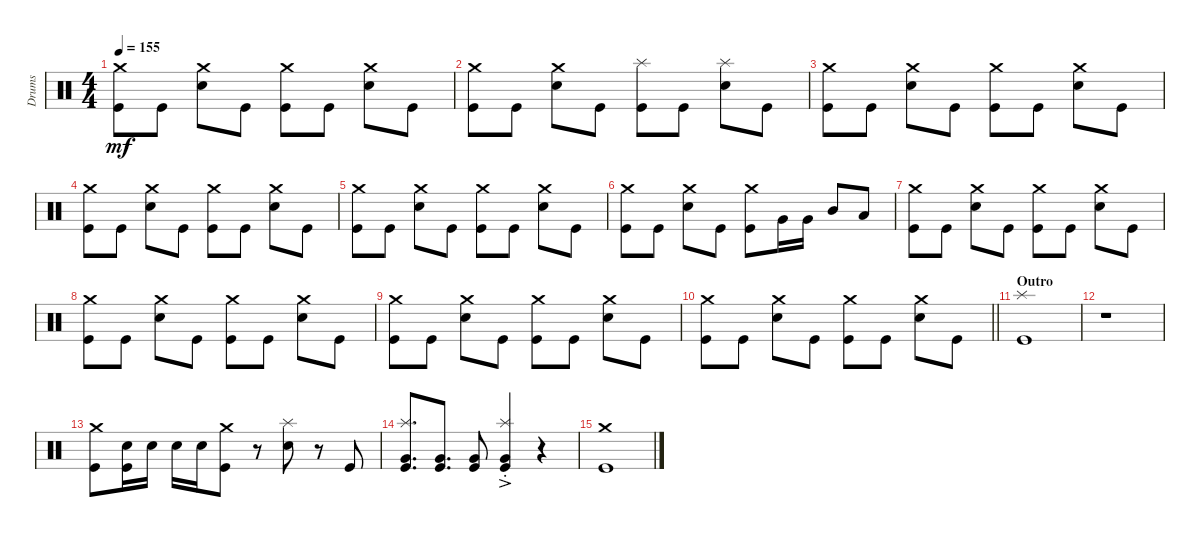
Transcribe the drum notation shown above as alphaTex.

\track ("Drums" "Drums") {instrument percussion}
\staff {score}
\articulation defaults
\ts (4 4)
\tempo 155
\clef neutral
\ks c
("Kick (hit)" "Crash medium (hit)").8{dy mf} "Kick (hit)".8 ("Snare (hit) 2" "Crash medium (hit)").8 "Kick (hit)".8 ("Kick (hit)" "Crash medium (hit)").8 "Kick (hit)".8 ("Snare (hit) 2" "Crash medium (hit)").8 "Kick (hit)".8 |
("Kick (hit)" "Crash medium (hit)").8 "Kick (hit)".8 ("Snare (hit) 2" "Crash medium (hit)").8 "Kick (hit)".8 ("Kick (hit)" "Splash (hit)").8 "Kick (hit)".8 ("Snare (hit) 2" "Splash (hit)").8 "Kick (hit)".8 |
("Kick (hit)" "Crash medium (hit)").8 "Kick (hit)".8 ("Snare (hit) 2" "Crash medium (hit)").8 "Kick (hit)".8 ("Kick (hit)" "Crash medium (hit)").8 "Kick (hit)".8 ("Snare (hit) 2" "Crash medium (hit)").8 "Kick (hit)".8 |
("Kick (hit)" "Crash medium (hit)").8 "Kick (hit)".8 ("Snare (hit) 2" "Crash medium (hit)").8 "Kick (hit)".8 ("Kick (hit)" "Crash medium (hit)").8 "Kick (hit)".8 ("Snare (hit) 2" "Crash medium (hit)").8 "Kick (hit)".8 |
("Kick (hit)" "Crash medium (hit)").8 "Kick (hit)".8 ("Snare (hit) 2" "Crash medium (hit)").8 "Kick (hit)".8 ("Kick (hit)" "Crash medium (hit)").8 "Kick (hit)".8 ("Snare (hit) 2" "Crash medium (hit)").8 "Kick (hit)".8 |
("Kick (hit)" "Crash medium (hit)").8 "Kick (hit)".8 ("Snare (hit) 2" "Crash medium (hit)").8 "Kick (hit)".8 ("Kick (hit)" "Crash medium (hit)").8 "Very Low Tom (hit)".16 "Very Low Tom (hit)".16 "Mid Tom (hit)".8 "Low Tom (hit)".8 |
("Kick (hit)" "Crash medium (hit)").8 "Kick (hit)".8 ("Snare (hit) 2" "Crash medium (hit)").8 "Kick (hit)".8 ("Kick (hit)" "Crash medium (hit)").8 "Kick (hit)".8 ("Snare (hit) 2" "Crash medium (hit)").8 "Kick (hit)".8 |
("Kick (hit)" "Crash medium (hit)").8 "Kick (hit)".8 ("Snare (hit) 2" "Crash medium (hit)").8 "Kick (hit)".8 ("Kick (hit)" "Crash medium (hit)").8 "Kick (hit)".8 ("Snare (hit) 2" "Crash medium (hit)").8 "Kick (hit)".8 |
("Kick (hit)" "Crash medium (hit)").8 "Kick (hit)".8 ("Snare (hit) 2" "Crash medium (hit)").8 "Kick (hit)".8 ("Kick (hit)" "Crash medium (hit)").8 "Kick (hit)".8 ("Snare (hit) 2" "Crash medium (hit)").8 "Kick (hit)".8 |
\barLineRight lightlight
("Kick (hit)" "Crash medium (hit)").8 "Kick (hit)".8 ("Snare (hit) 2" "Crash medium (hit)").8 "Kick (hit)".8 ("Kick (hit)" "Crash medium (hit)").8 "Kick (hit)".8 ("Snare (hit) 2" "Crash medium (hit)").8 "Kick (hit)".8 |
\section ("" "Outro")
("Kick (hit)" "Splash (hit)").1 |
r.1 |
("Kick (hit)" "Crash medium (hit)").8 ("Kick (hit)" "Snare (hit) 2").16 "Snare (hit) 2".16 "Snare (hit) 2".16 "Snare (hit) 2".16 ("Kick (hit)" "Crash medium (hit)").8 r.8 ("Snare (hit) 2" "Splash (hit)").8 r.8 "Kick (hit)".8 |
("Very Low Tom (hit)" "Kick (hit)" "Splash (hit)").8{d} ("Very Low Tom (hit)" "Kick (hit)").8{d} ("Very Low Tom (hit)" "Kick (hit)").8 ("Very Low Tom (hit)"{ac st} "Kick (hit)"{ac st} "Splash (hit)"{ac st}).4 r.4 |
("Kick (hit)" "Crash medium (hit)").1
